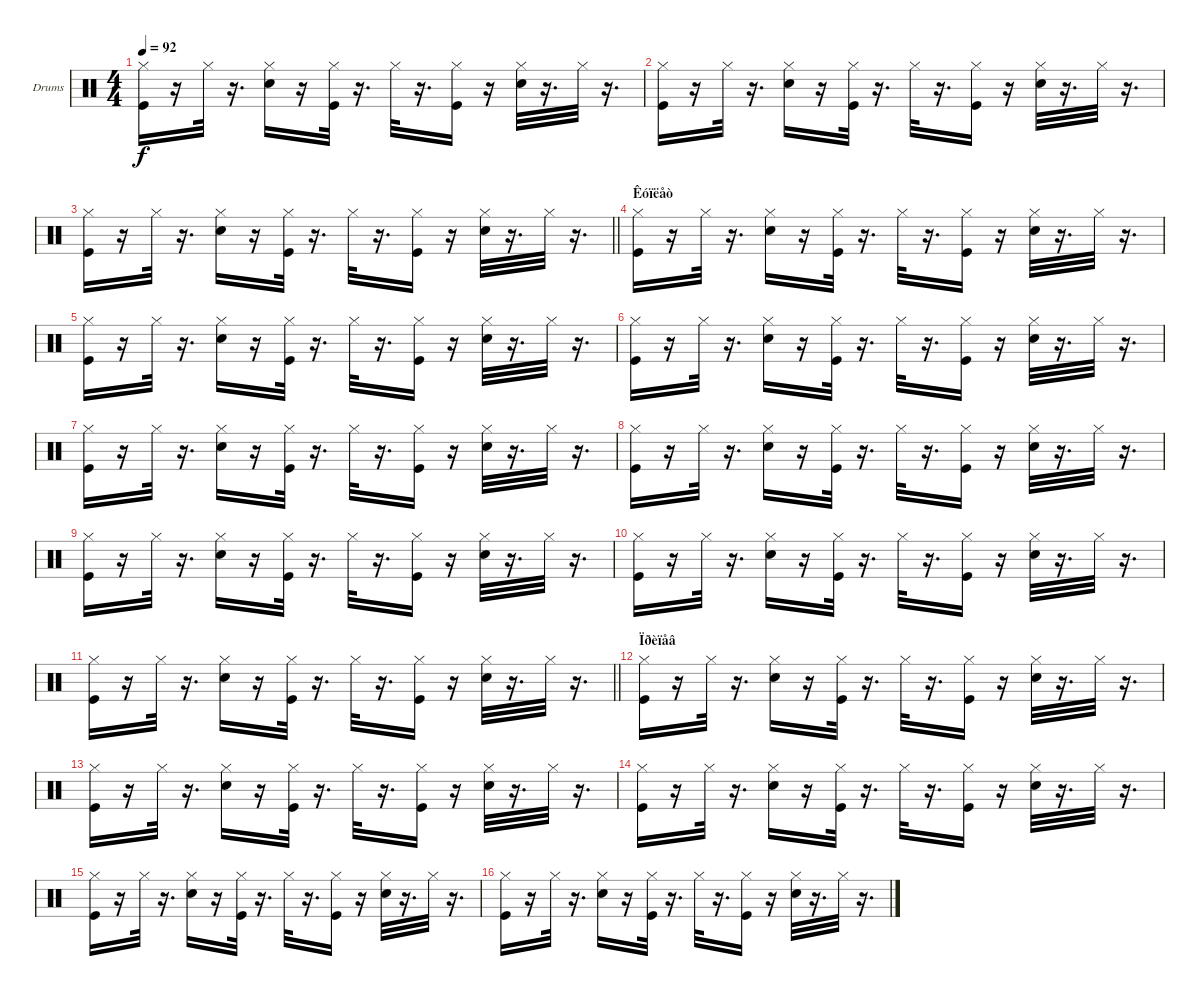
\bracketExtendMode groupsimilarinstruments
\firstSystemTrackNameOrientation horizontal
\otherSystemsTrackNameOrientation horizontal
\track ("Drumkit" "Drums") {instrument percussion}
\staff {score}
\articulation defaults
\ts (4 4)
\tempo 92
\clef neutral
\ks c
("Kick (hit)" "Hi-Hat (closed)").16{dy f} r.16 "Hi-Hat (closed)".32 r.16{d} ("Snare (hit) 2" "Hi-Hat (closed)").16 r.16 ("Kick (hit)" "Hi-Hat (closed)").32 r.16{d} "Hi-Hat (closed)".32 r.16{d} ("Kick (hit)" "Hi-Hat (closed)").16 r.16 ("Snare (hit) 2" "Hi-Hat (closed)").32 r.16{d} "Hi-Hat (closed)".32 r.16{d} |
("Kick (hit)" "Hi-Hat (closed)").16 r.16 "Hi-Hat (closed)".32 r.16{d} ("Snare (hit) 2" "Hi-Hat (closed)").16 r.16 ("Kick (hit)" "Hi-Hat (closed)").32 r.16{d} "Hi-Hat (closed)".32 r.16{d} ("Kick (hit)" "Hi-Hat (closed)").16 r.16 ("Snare (hit) 2" "Hi-Hat (closed)").32 r.16{d} "Hi-Hat (closed)".32 r.16{d} |
\barLineRight lightlight
("Kick (hit)" "Hi-Hat (closed)").16 r.16 "Hi-Hat (closed)".32 r.16{d} ("Snare (hit) 2" "Hi-Hat (closed)").16 r.16 ("Kick (hit)" "Hi-Hat (closed)").32 r.16{d} "Hi-Hat (closed)".32 r.16{d} ("Kick (hit)" "Hi-Hat (closed)").16 r.16 ("Snare (hit) 2" "Hi-Hat (closed)").32 r.16{d} "Hi-Hat (closed)".32 r.16{d} |
\section ("" "Êóïëåò")
("Kick (hit)" "Hi-Hat (closed)").16 r.16 "Hi-Hat (closed)".32 r.16{d} ("Snare (hit) 2" "Hi-Hat (closed)").16 r.16 ("Kick (hit)" "Hi-Hat (closed)").32 r.16{d} "Hi-Hat (closed)".32 r.16{d} ("Kick (hit)" "Hi-Hat (closed)").16 r.16 ("Snare (hit) 2" "Hi-Hat (closed)").32 r.16{d} "Hi-Hat (closed)".32 r.16{d} |
("Kick (hit)" "Hi-Hat (closed)").16 r.16 "Hi-Hat (closed)".32 r.16{d} ("Snare (hit) 2" "Hi-Hat (closed)").16 r.16 ("Kick (hit)" "Hi-Hat (closed)").32 r.16{d} "Hi-Hat (closed)".32 r.16{d} ("Kick (hit)" "Hi-Hat (closed)").16 r.16 ("Snare (hit) 2" "Hi-Hat (closed)").32 r.16{d} "Hi-Hat (closed)".32 r.16{d} |
("Kick (hit)" "Hi-Hat (closed)").16 r.16 "Hi-Hat (closed)".32 r.16{d} ("Snare (hit) 2" "Hi-Hat (closed)").16 r.16 ("Kick (hit)" "Hi-Hat (closed)").32 r.16{d} "Hi-Hat (closed)".32 r.16{d} ("Kick (hit)" "Hi-Hat (closed)").16 r.16 ("Snare (hit) 2" "Hi-Hat (closed)").32 r.16{d} "Hi-Hat (closed)".32 r.16{d} |
("Kick (hit)" "Hi-Hat (closed)").16 r.16 "Hi-Hat (closed)".32 r.16{d} ("Snare (hit) 2" "Hi-Hat (closed)").16 r.16 ("Kick (hit)" "Hi-Hat (closed)").32 r.16{d} "Hi-Hat (closed)".32 r.16{d} ("Kick (hit)" "Hi-Hat (closed)").16 r.16 ("Snare (hit) 2" "Hi-Hat (closed)").32 r.16{d} "Hi-Hat (closed)".32 r.16{d} |
("Kick (hit)" "Hi-Hat (closed)").16 r.16 "Hi-Hat (closed)".32 r.16{d} ("Snare (hit) 2" "Hi-Hat (closed)").16 r.16 ("Kick (hit)" "Hi-Hat (closed)").32 r.16{d} "Hi-Hat (closed)".32 r.16{d} ("Kick (hit)" "Hi-Hat (closed)").16 r.16 ("Snare (hit) 2" "Hi-Hat (closed)").32 r.16{d} "Hi-Hat (closed)".32 r.16{d} |
("Kick (hit)" "Hi-Hat (closed)").16 r.16 "Hi-Hat (closed)".32 r.16{d} ("Snare (hit) 2" "Hi-Hat (closed)").16 r.16 ("Kick (hit)" "Hi-Hat (closed)").32 r.16{d} "Hi-Hat (closed)".32 r.16{d} ("Kick (hit)" "Hi-Hat (closed)").16 r.16 ("Snare (hit) 2" "Hi-Hat (closed)").32 r.16{d} "Hi-Hat (closed)".32 r.16{d} |
("Kick (hit)" "Hi-Hat (closed)").16 r.16 "Hi-Hat (closed)".32 r.16{d} ("Snare (hit) 2" "Hi-Hat (closed)").16 r.16 ("Kick (hit)" "Hi-Hat (closed)").32 r.16{d} "Hi-Hat (closed)".32 r.16{d} ("Kick (hit)" "Hi-Hat (closed)").16 r.16 ("Snare (hit) 2" "Hi-Hat (closed)").32 r.16{d} "Hi-Hat (closed)".32 r.16{d} |
\barLineRight lightlight
("Kick (hit)" "Hi-Hat (closed)").16 r.16 "Hi-Hat (closed)".32 r.16{d} ("Snare (hit) 2" "Hi-Hat (closed)").16 r.16 ("Kick (hit)" "Hi-Hat (closed)").32 r.16{d} "Hi-Hat (closed)".32 r.16{d} ("Kick (hit)" "Hi-Hat (closed)").16 r.16 ("Snare (hit) 2" "Hi-Hat (closed)").32 r.16{d} "Hi-Hat (closed)".32 r.16{d} |
\section ("" "Ïðèïåâ")
("Kick (hit)" "Hi-Hat (closed)").16 r.16 "Hi-Hat (closed)".32 r.16{d} ("Snare (hit) 2" "Hi-Hat (closed)").16 r.16 ("Kick (hit)" "Hi-Hat (closed)").32 r.16{d} "Hi-Hat (closed)".32 r.16{d} ("Kick (hit)" "Hi-Hat (closed)").16 r.16 ("Snare (hit) 2" "Hi-Hat (closed)").32 r.16{d} "Hi-Hat (closed)".32 r.16{d} |
("Kick (hit)" "Hi-Hat (closed)").16 r.16 "Hi-Hat (closed)".32 r.16{d} ("Snare (hit) 2" "Hi-Hat (closed)").16 r.16 ("Kick (hit)" "Hi-Hat (closed)").32 r.16{d} "Hi-Hat (closed)".32 r.16{d} ("Kick (hit)" "Hi-Hat (closed)").16 r.16 ("Snare (hit) 2" "Hi-Hat (closed)").32 r.16{d} "Hi-Hat (closed)".32 r.16{d} |
("Kick (hit)" "Hi-Hat (closed)").16 r.16 "Hi-Hat (closed)".32 r.16{d} ("Snare (hit) 2" "Hi-Hat (closed)").16 r.16 ("Kick (hit)" "Hi-Hat (closed)").32 r.16{d} "Hi-Hat (closed)".32 r.16{d} ("Kick (hit)" "Hi-Hat (closed)").16 r.16 ("Snare (hit) 2" "Hi-Hat (closed)").32 r.16{d} "Hi-Hat (closed)".32 r.16{d} |
("Kick (hit)" "Hi-Hat (closed)").16 r.16 "Hi-Hat (closed)".32 r.16{d} ("Snare (hit) 2" "Hi-Hat (closed)").16 r.16 ("Kick (hit)" "Hi-Hat (closed)").32 r.16{d} "Hi-Hat (closed)".32 r.16{d} ("Kick (hit)" "Hi-Hat (closed)").16 r.16 ("Snare (hit) 2" "Hi-Hat (closed)").32 r.16{d} "Hi-Hat (closed)".32 r.16{d} |
("Kick (hit)" "Hi-Hat (closed)").16 r.16 "Hi-Hat (closed)".32 r.16{d} ("Snare (hit) 2" "Hi-Hat (closed)").16 r.16 ("Kick (hit)" "Hi-Hat (closed)").32 r.16{d} "Hi-Hat (closed)".32 r.16{d} ("Kick (hit)" "Hi-Hat (closed)").16 r.16 ("Snare (hit) 2" "Hi-Hat (closed)").32 r.16{d} "Hi-Hat (closed)".32 r.16{d}
